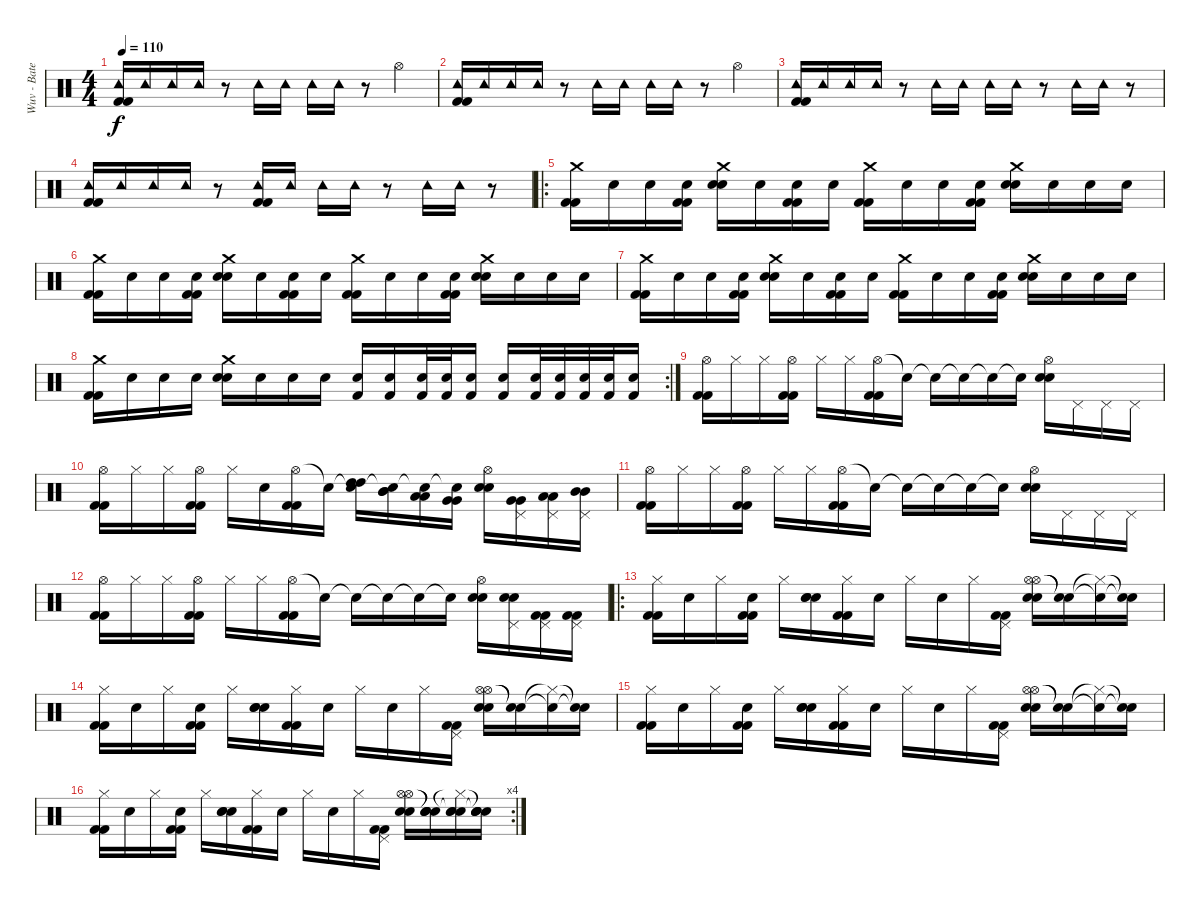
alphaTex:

\track ("Wuv - Bateria" "Wuv - Bate") {instrument percussion}
\staff {score}
\articulation defaults
\ts (4 4)
\tempo 110
\clef neutral
\ks c
("Tambourine (hit)" "Kick (hit) 2" "Kick (hit) 2").16{dy f} "Tambourine (hit)".16 "Tambourine (hit)".16 "Tambourine (hit)".16 r.8 "Tambourine (hit)".16 "Tambourine (hit)".16 "Tambourine (hit)".16 "Tambourine (hit)".16 r.8 "Hi-Hat (open)".4 |
("Tambourine (hit)" "Kick (hit) 2" "Kick (hit) 2").16 "Tambourine (hit)".16 "Tambourine (hit)".16 "Tambourine (hit)".16 r.8 "Tambourine (hit)".16 "Tambourine (hit)".16 "Tambourine (hit)".16 "Tambourine (hit)".16 r.8 "Hi-Hat (open)".4 |
("Tambourine (hit)" "Kick (hit) 2" "Kick (hit) 2").16 "Tambourine (hit)".16 "Tambourine (hit)".16 "Tambourine (hit)".16 r.8 "Tambourine (hit)".16 "Tambourine (hit)".16 "Tambourine (hit)".16 "Tambourine (hit)".16 r.8 "Tambourine (hit)".16 "Tambourine (hit)".16 r.8 |
("Tambourine (hit)" "Kick (hit) 2" "Kick (hit) 2").16 "Tambourine (hit)".16 "Tambourine (hit)".16 "Tambourine (hit)".16 r.8 ("Tambourine (hit)" "Kick (hit) 2" "Kick (hit) 2").16 "Tambourine (hit)".16 "Tambourine (hit)".16 "Tambourine (hit)".16 r.8 "Tambourine (hit)".16 "Tambourine (hit)".16 r.8 |
\ro
("Crash medium (hit)" "Kick (hit) 2" "Kick (hit) 2").16 "Snare (hit)".16 "Snare (hit)".16 ("Snare (hit)" "Kick (hit) 2" "Kick (hit) 2").16 ("Crash medium (hit)" "Electric Snare (hit)" "Electric Snare (hit)").16 "Snare (hit)".16 ("Snare (hit)" "Kick (hit) 2" "Kick (hit) 2").16 "Snare (hit)".16 ("Crash medium (hit)" "Kick (hit) 2" "Kick (hit) 2").16 "Snare (hit)".16 "Snare (hit)".16 ("Snare (hit)" "Kick (hit) 2" "Kick (hit) 2").16 ("Crash medium (hit)" "Electric Snare (hit)" "Electric Snare (hit)").16 "Snare (hit)".16 "Snare (hit)".16 "Snare (hit)".16 |
("Crash medium (hit)" "Kick (hit) 2" "Kick (hit) 2").16 "Snare (hit)".16 "Snare (hit)".16 ("Snare (hit)" "Kick (hit) 2" "Kick (hit) 2").16 ("Crash medium (hit)" "Electric Snare (hit)" "Electric Snare (hit)").16 "Snare (hit)".16 ("Snare (hit)" "Kick (hit) 2" "Kick (hit) 2").16 "Snare (hit)".16 ("Crash medium (hit)" "Kick (hit) 2" "Kick (hit) 2").16 "Snare (hit)".16 "Snare (hit)".16 ("Snare (hit)" "Kick (hit) 2" "Kick (hit) 2").16 ("Crash medium (hit)" "Electric Snare (hit)" "Electric Snare (hit)").16 "Snare (hit)".16 "Snare (hit)".16 "Snare (hit)".16 |
("Crash medium (hit)" "Kick (hit) 2" "Kick (hit) 2").16 "Snare (hit)".16 "Snare (hit)".16 ("Snare (hit)" "Kick (hit) 2" "Kick (hit) 2").16 ("Crash medium (hit)" "Electric Snare (hit)" "Electric Snare (hit)").16 "Snare (hit)".16 ("Snare (hit)" "Kick (hit) 2" "Kick (hit) 2").16 "Snare (hit)".16 ("Crash medium (hit)" "Kick (hit) 2" "Kick (hit) 2").16 "Snare (hit)".16 "Snare (hit)".16 ("Snare (hit)" "Kick (hit) 2" "Kick (hit) 2").16 ("Crash medium (hit)" "Electric Snare (hit)" "Electric Snare (hit)").16 "Snare (hit)".16 "Snare (hit)".16 "Snare (hit)".16 |
\rc 2
("Crash medium (hit)" "Kick (hit) 2" "Kick (hit) 2").16 "Snare (hit)".16 "Snare (hit)".16 "Snare (hit)".16 ("Crash medium (hit)" "Electric Snare (hit)" "Electric Snare (hit)").16 "Snare (hit)".16 "Snare (hit)".16 "Snare (hit)".16 ("Kick (hit) 2" "Electric Snare (hit)").16 ("Kick (hit) 2" "Electric Snare (hit)").16 ("Kick (hit) 2" "Electric Snare (hit)").32 ("Kick (hit) 2" "Electric Snare (hit)").32 ("Kick (hit) 2" "Electric Snare (hit)").16 ("Kick (hit) 2" "Electric Snare (hit)").16 ("Kick (hit) 2" "Electric Snare (hit)").32 ("Kick (hit) 2" "Electric Snare (hit)").32 ("Kick (hit) 2" "Electric Snare (hit)").32 ("Kick (hit) 2" "Electric Snare (hit)").32 ("Kick (hit) 2" "Electric Snare (hit)").16 |
("Hi-Hat (open)" "Kick (hit) 2" "Kick (hit) 2").16 "Hi-Hat (closed)".16 "Hi-Hat (closed)".16 ("Hi-Hat (open)" "Kick (hit) 2" "Kick (hit) 2").16 "Hi-Hat (closed)".16 "Hi-Hat (closed)".16 ("Hi-Hat (open)" "Kick (hit) 2" "Kick (hit) 2").16 "Snare (hit)"{t}.16 "Snare (hit)"{t}.16 "Snare (hit)"{t}.16 "Snare (hit)"{t}.16 "Snare (hit)"{t}.16 ("Hi-Hat (open)" "Electric Snare (hit)" "Electric Snare (hit)").16 "Pedal Hi-Hat (hit)".16 "Pedal Hi-Hat (hit)".16 "Pedal Hi-Hat (hit)".16 |
("Hi-Hat (open)" "Kick (hit) 2" "Kick (hit) 2").16 "Hi-Hat (closed)".16 "Hi-Hat (closed)".16 ("Hi-Hat (open)" "Kick (hit) 2" "Kick (hit) 2").16 "Hi-Hat (closed)".16 "Snare (hit)".16 ("Hi-Hat (open)" "Kick (hit) 2" "Kick (hit) 2").16 "Snare (hit)"{t}.16 ("Snare (hit)"{t} "High Tom (hit)" "High Tom (hit)").16 ("Snare (hit)"{t} "Mid Tom (hit)" "Mid Tom (hit)").16 ("Snare (hit)"{t} "Low Tom (hit)" "Low Tom (hit)").16 ("Snare (hit)"{t} "Very Low Tom (hit)" "Very Low Tom (hit)").16 ("Hi-Hat (open)" "Electric Snare (hit)" "Electric Snare (hit)").16 ("Pedal Hi-Hat (hit)" "Very Low Tom (hit)" "Very Low Tom (hit)").16 ("Pedal Hi-Hat (hit)" "Low Tom (hit)" "Low Tom (hit)").16 ("Pedal Hi-Hat (hit)" "Mid Tom (hit)" "Mid Tom (hit)").16 |
("Hi-Hat (open)" "Kick (hit) 2" "Kick (hit) 2").16 "Hi-Hat (closed)".16 "Hi-Hat (closed)".16 ("Hi-Hat (open)" "Kick (hit) 2" "Kick (hit) 2").16 "Hi-Hat (closed)".16 "Hi-Hat (closed)".16 ("Hi-Hat (open)" "Kick (hit) 2" "Kick (hit) 2").16 "Snare (hit)"{t}.16 "Snare (hit)"{t}.16 "Snare (hit)"{t}.16 "Snare (hit)"{t}.16 "Snare (hit)"{t}.16 ("Hi-Hat (open)" "Electric Snare (hit)" "Electric Snare (hit)").16 "Pedal Hi-Hat (hit)".16 "Pedal Hi-Hat (hit)".16 "Pedal Hi-Hat (hit)".16 |
("Hi-Hat (open)" "Kick (hit) 2" "Kick (hit) 2").16 "Hi-Hat (closed)".16 "Hi-Hat (closed)".16 ("Hi-Hat (open)" "Kick (hit) 2" "Kick (hit) 2").16 "Hi-Hat (closed)".16 "Hi-Hat (closed)".16 ("Hi-Hat (open)" "Kick (hit) 2" "Kick (hit) 2").16 "Snare (hit)"{t}.16 "Snare (hit)"{t}.16 "Snare (hit)"{t}.16 "Snare (hit)"{t}.16 "Snare (hit)"{t}.16 ("Hi-Hat (open)" "Electric Snare (hit)" "Electric Snare (hit)").16 ("Pedal Hi-Hat (hit)" "Electric Snare (hit)" "Electric Snare (hit)").16 ("Pedal Hi-Hat (hit)" "Kick (hit) 2" "Kick (hit) 2").16 ("Pedal Hi-Hat (hit)" "Kick (hit) 2" "Kick (hit) 2").16 |
\ro
("Hi-Hat (closed)" "Kick (hit) 2" "Kick (hit) 2").16 "Snare (hit)".16 "Hi-Hat (closed)".16 ("Snare (hit)" "Kick (hit) 2" "Kick (hit) 2").16 "Hi-Hat (closed)".16 ("Snare (hit)" "Electric Snare (hit)" "Electric Snare (hit)").16 ("Hi-Hat (closed)" "Kick (hit) 2" "Kick (hit) 2").16 "Snare (hit)".16 "Hi-Hat (closed)".16 "Snare (hit)".16 "Hi-Hat (closed)".16 ("Pedal Hi-Hat (hit)" "Kick (hit) 2" "Kick (hit) 2").16 ("Hi-Hat (open)" "Hi-Hat (open)" "Electric Snare (hit)" "Electric Snare (hit)").16 ("Snare (hit)"{t} "Snare (hit)"{t}).16 ("Hi-Hat (closed)"{t} "Snare (hit)"{t}).16 ("Snare (hit)"{t} "Snare (hit)"{t}).16 |
("Hi-Hat (closed)" "Kick (hit) 2" "Kick (hit) 2").16 "Snare (hit)".16 "Hi-Hat (closed)".16 ("Snare (hit)" "Kick (hit) 2" "Kick (hit) 2").16 "Hi-Hat (closed)".16 ("Snare (hit)" "Electric Snare (hit)" "Electric Snare (hit)").16 ("Hi-Hat (closed)" "Kick (hit) 2" "Kick (hit) 2").16 "Snare (hit)".16 "Hi-Hat (closed)".16 "Snare (hit)".16 "Hi-Hat (closed)".16 ("Pedal Hi-Hat (hit)" "Kick (hit) 2" "Kick (hit) 2").16 ("Hi-Hat (open)" "Hi-Hat (open)" "Electric Snare (hit)" "Electric Snare (hit)").16 ("Snare (hit)"{t} "Snare (hit)"{t}).16 ("Hi-Hat (closed)"{t} "Snare (hit)"{t}).16 ("Snare (hit)"{t} "Snare (hit)"{t}).16 |
("Hi-Hat (closed)" "Kick (hit) 2" "Kick (hit) 2").16 "Snare (hit)".16 "Hi-Hat (closed)".16 ("Snare (hit)" "Kick (hit) 2" "Kick (hit) 2").16 "Hi-Hat (closed)".16 ("Snare (hit)" "Electric Snare (hit)" "Electric Snare (hit)").16 ("Hi-Hat (closed)" "Kick (hit) 2" "Kick (hit) 2").16 "Snare (hit)".16 "Hi-Hat (closed)".16 "Snare (hit)".16 "Hi-Hat (closed)".16 ("Pedal Hi-Hat (hit)" "Kick (hit) 2" "Kick (hit) 2").16 ("Hi-Hat (open)" "Hi-Hat (open)" "Electric Snare (hit)" "Electric Snare (hit)").16 ("Snare (hit)"{t} "Snare (hit)"{t}).16 ("Hi-Hat (closed)"{t} "Snare (hit)"{t}).16 ("Snare (hit)"{t} "Snare (hit)"{t}).16 |
\rc 4
("Hi-Hat (closed)" "Kick (hit) 2" "Kick (hit) 2").16 "Snare (hit)".16 "Hi-Hat (closed)".16 ("Snare (hit)" "Kick (hit) 2" "Kick (hit) 2").16 "Hi-Hat (closed)".16 ("Snare (hit)" "Electric Snare (hit)" "Electric Snare (hit)").16 ("Hi-Hat (closed)" "Kick (hit) 2" "Kick (hit) 2").16 "Snare (hit)".16 "Hi-Hat (closed)".16 "Snare (hit)".16 "Hi-Hat (closed)".16 ("Pedal Hi-Hat (hit)" "Kick (hit) 2" "Kick (hit) 2").16 ("Hi-Hat (open)" "Hi-Hat (open)" "Electric Snare (hit)" "Electric Snare (hit)").16 ("Snare (hit)"{t} "Snare (hit)"{t} "Electric Snare (hit)" "Electric Snare (hit)").16 ("Hi-Hat (closed)"{t} "Snare (hit)"{t} "Electric Snare (hit)" "Electric Snare (hit)").16 ("Snare (hit)"{t} "Snare (hit)"{t} "Electric Snare (hit)" "Electric Snare (hit)").16
